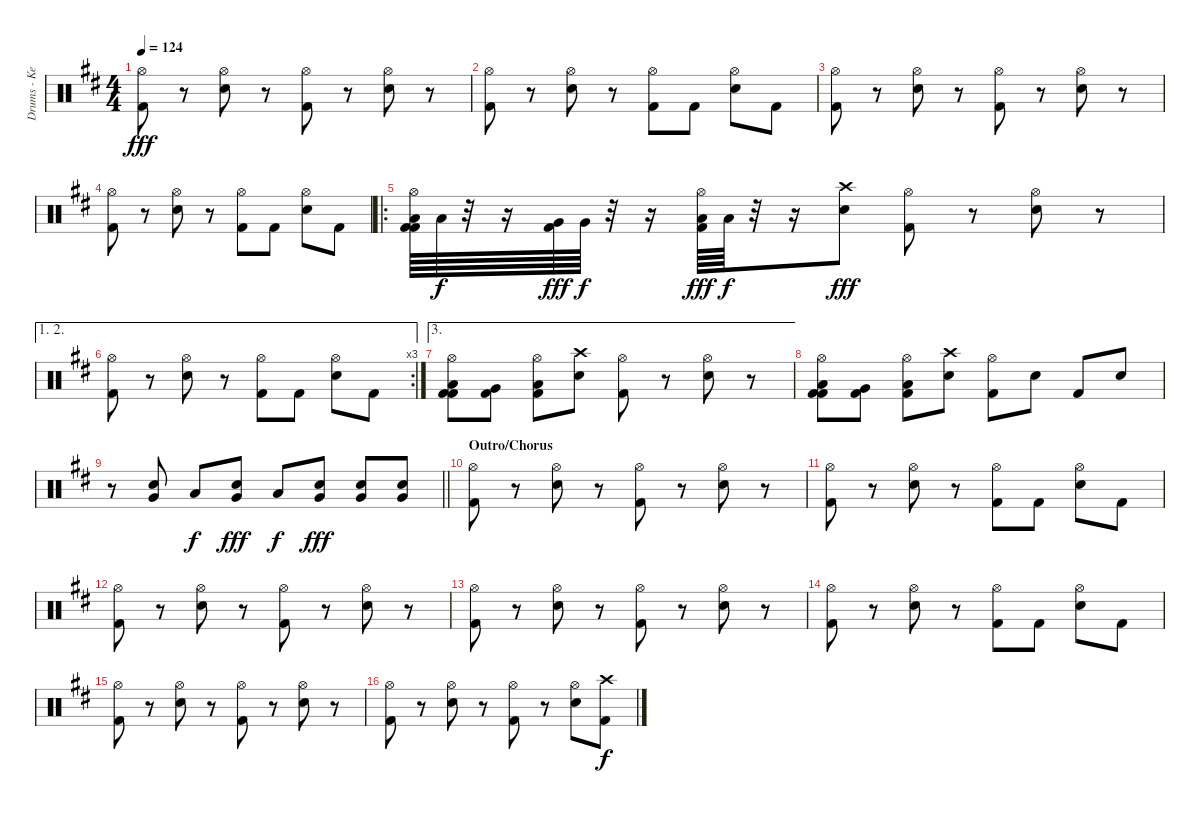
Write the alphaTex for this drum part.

\track ("Drums - Kevin Frank" "Drums - Ke") {instrument percussion}
\staff {score}
\articulation defaults
\ts (4 4)
\tempo 124
\clef neutral
\ks d
("Hi-Hat (open)" "Kick (hit) 2").8{dy fff} r.8 ("Hi-Hat (open)" "Snare (hit) 2").8 r.8 ("Hi-Hat (open)" "Kick (hit) 2").8 r.8 ("Hi-Hat (open)" "Snare (hit) 2").8 r.8 |
("Hi-Hat (open)" "Kick (hit) 2").8 r.8 ("Hi-Hat (open)" "Snare (hit) 2").8 r.8 ("Hi-Hat (open)" "Kick (hit) 2").8 "Kick (hit) 2".8 ("Hi-Hat (open)" "Snare (hit) 2").8 "Kick (hit) 2".8 |
("Hi-Hat (open)" "Kick (hit) 2").8 r.8 ("Hi-Hat (open)" "Snare (hit) 2").8 r.8 ("Hi-Hat (open)" "Kick (hit) 2").8 r.8 ("Hi-Hat (open)" "Snare (hit) 2").8 r.8 |
("Hi-Hat (open)" "Kick (hit) 2").8 r.8 ("Hi-Hat (open)" "Snare (hit) 2").8 r.8 ("Hi-Hat (open)" "Kick (hit) 2").8 "Kick (hit) 2".8 ("Hi-Hat (open)" "Snare (hit) 2").8 "Kick (hit) 2".8 |
\ro
("Hi-Hat (open)" "Kick (hit) 2" "Low Tom (hit)" "Kick (hit) 2").64 "Low Tom (hit)".64{dy f} r.32 r.16 ("Very Low Tom (hit)" "Kick (hit) 2").64{dy fff} "Very Low Tom (hit)".64{dy f} r.32 r.16 ("Hi-Hat (open)" "Low Floor Tom (hit)" "Kick (hit) 2").64{dy fff} "Low Floor Tom (hit)".64{dy f} r.32 r.16 ("Crash high (hit)" "Snare (hit) 2").8{dy fff} ("Hi-Hat (open)" "Kick (hit) 2").8 r.8 ("Hi-Hat (open)" "Snare (hit) 2").8 r.8 |
\ae (1 2)
\rc 3
("Hi-Hat (open)" "Kick (hit) 2").8 r.8 ("Hi-Hat (open)" "Snare (hit) 2").8 r.8 ("Hi-Hat (open)" "Kick (hit) 2").8 "Kick (hit) 2".8 ("Hi-Hat (open)" "Snare (hit) 2").8 "Kick (hit) 2".8 |
\ae 3
("Hi-Hat (open)" "Kick (hit) 2" "Low Tom (hit)" "Kick (hit) 2").8 ("Very Low Tom (hit)" "Kick (hit) 2").8 ("Hi-Hat (open)" "Low Floor Tom (hit)" "Kick (hit) 2").8 ("Crash high (hit)" "Snare (hit) 2").8 ("Hi-Hat (open)" "Kick (hit) 2").8 r.8 ("Hi-Hat (open)" "Snare (hit) 2").8 r.8 |
("Hi-Hat (open)" "Kick (hit) 2" "Low Tom (hit)" "Kick (hit) 2").8 ("Very Low Tom (hit)" "Kick (hit) 2").8 ("Hi-Hat (open)" "Low Floor Tom (hit)" "Kick (hit) 2").8 ("Crash high (hit)" "Snare (hit) 2").8 ("Hi-Hat (open)" "Kick (hit) 2").8 "Snare (hit) 2".8 "Kick (hit) 2".8 "Snare (hit) 2".8 |
\barLineRight lightlight
r.8 ("Snare (hit) 2" "Very Low Tom (hit)").8 "Low Floor Tom (hit)".8{dy f} ("Snare (hit) 2" "Very Low Tom (hit)").8{dy fff} "Low Floor Tom (hit)".8{dy f} ("Snare (hit) 2" "Very Low Tom (hit)").8{dy fff} ("Snare (hit) 2" "Very Low Tom (hit)").8 ("Snare (hit) 2" "Very Low Tom (hit)").8 |
\section ("" "Outro/Chorus")
("Hi-Hat (open)" "Kick (hit) 2").8 r.8 ("Hi-Hat (open)" "Snare (hit) 2").8 r.8 ("Hi-Hat (open)" "Kick (hit) 2").8 r.8 ("Hi-Hat (open)" "Snare (hit) 2").8 r.8 |
("Hi-Hat (open)" "Kick (hit) 2").8 r.8 ("Hi-Hat (open)" "Snare (hit) 2").8 r.8 ("Hi-Hat (open)" "Kick (hit) 2").8 "Kick (hit) 2".8 ("Hi-Hat (open)" "Snare (hit) 2").8 "Kick (hit) 2".8 |
("Hi-Hat (open)" "Kick (hit) 2").8 r.8 ("Hi-Hat (open)" "Snare (hit) 2").8 r.8 ("Hi-Hat (open)" "Kick (hit) 2").8 r.8 ("Hi-Hat (open)" "Snare (hit) 2").8 r.8 |
("Hi-Hat (open)" "Kick (hit) 2").8 r.8 ("Hi-Hat (open)" "Snare (hit) 2").8 r.8 ("Hi-Hat (open)" "Kick (hit) 2").8 r.8 ("Hi-Hat (open)" "Snare (hit) 2").8 r.8 |
("Hi-Hat (open)" "Kick (hit) 2").8 r.8 ("Hi-Hat (open)" "Snare (hit) 2").8 r.8 ("Hi-Hat (open)" "Kick (hit) 2").8 "Kick (hit) 2".8 ("Hi-Hat (open)" "Snare (hit) 2").8 "Kick (hit) 2".8 |
("Hi-Hat (open)" "Kick (hit) 2").8 r.8 ("Hi-Hat (open)" "Snare (hit) 2").8 r.8 ("Hi-Hat (open)" "Kick (hit) 2").8 r.8 ("Hi-Hat (open)" "Snare (hit) 2").8 r.8 |
("Hi-Hat (open)" "Kick (hit) 2").8 r.8 ("Hi-Hat (open)" "Snare (hit) 2").8 r.8 ("Hi-Hat (open)" "Kick (hit) 2").8 r.8 ("Hi-Hat (open)" "Snare (hit) 2").8 ("Crash high (hit)" "Kick (hit) 2").8{dy f}
